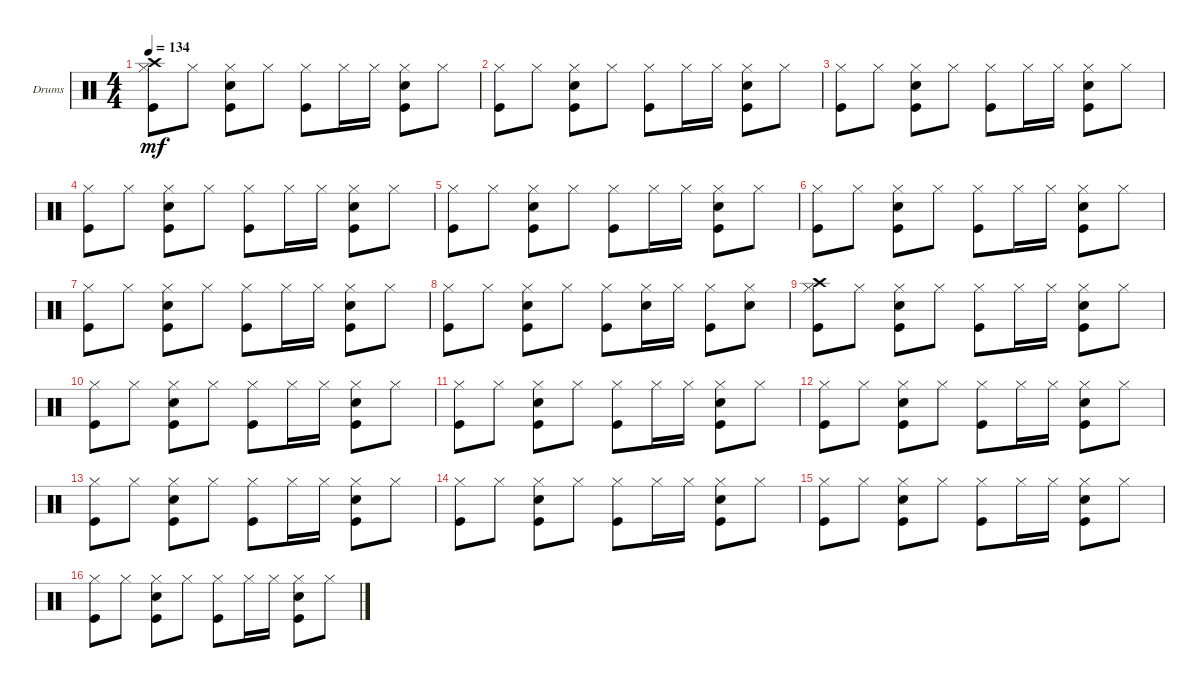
\bracketExtendMode groupsimilarinstruments
\firstSystemTrackNameOrientation horizontal
\otherSystemsTrackNameOrientation horizontal
\track ("DRUMSET" "Drums") {instrument percussion}
\staff {score}
\articulation defaults
\ts (4 4)
\tempo 134
\clef neutral
\ks c
("Kick (hit)" "Hi-Hat (closed)" "Crash high (hit)").8{dy mf} "Hi-Hat (closed)".8 ("Kick (hit)" "Snare (hit) 2" "Hi-Hat (closed)").8 "Hi-Hat (closed)".8 ("Kick (hit)" "Hi-Hat (closed)").8 "Hi-Hat (closed)".16 "Hi-Hat (closed)".16 ("Kick (hit)" "Snare (hit) 2" "Hi-Hat (closed)").8 "Hi-Hat (closed)".8 |
("Kick (hit)" "Hi-Hat (closed)").8 "Hi-Hat (closed)".8 ("Kick (hit)" "Snare (hit) 2" "Hi-Hat (closed)").8 "Hi-Hat (closed)".8 ("Kick (hit)" "Hi-Hat (closed)").8 "Hi-Hat (closed)".16 "Hi-Hat (closed)".16 ("Kick (hit)" "Snare (hit) 2" "Hi-Hat (closed)").8 "Hi-Hat (closed)".8 |
("Kick (hit)" "Hi-Hat (closed)").8 "Hi-Hat (closed)".8 ("Kick (hit)" "Snare (hit) 2" "Hi-Hat (closed)").8 "Hi-Hat (closed)".8 ("Kick (hit)" "Hi-Hat (closed)").8 "Hi-Hat (closed)".16 "Hi-Hat (closed)".16 ("Kick (hit)" "Snare (hit) 2" "Hi-Hat (closed)").8 "Hi-Hat (closed)".8 |
("Kick (hit)" "Hi-Hat (closed)").8 "Hi-Hat (closed)".8 ("Kick (hit)" "Snare (hit) 2" "Hi-Hat (closed)").8 "Hi-Hat (closed)".8 ("Kick (hit)" "Hi-Hat (closed)").8 "Hi-Hat (closed)".16 "Hi-Hat (closed)".16 ("Kick (hit)" "Snare (hit) 2" "Hi-Hat (closed)").8 "Hi-Hat (closed)".8 |
("Kick (hit)" "Hi-Hat (closed)").8 "Hi-Hat (closed)".8 ("Kick (hit)" "Snare (hit) 2" "Hi-Hat (closed)").8 "Hi-Hat (closed)".8 ("Kick (hit)" "Hi-Hat (closed)").8 "Hi-Hat (closed)".16 "Hi-Hat (closed)".16 ("Kick (hit)" "Snare (hit) 2" "Hi-Hat (closed)").8 "Hi-Hat (closed)".8 |
("Kick (hit)" "Hi-Hat (closed)").8 "Hi-Hat (closed)".8 ("Kick (hit)" "Snare (hit) 2" "Hi-Hat (closed)").8 "Hi-Hat (closed)".8 ("Kick (hit)" "Hi-Hat (closed)").8 "Hi-Hat (closed)".16 "Hi-Hat (closed)".16 ("Kick (hit)" "Snare (hit) 2" "Hi-Hat (closed)").8 "Hi-Hat (closed)".8 |
("Kick (hit)" "Hi-Hat (closed)").8 "Hi-Hat (closed)".8 ("Kick (hit)" "Snare (hit) 2" "Hi-Hat (closed)").8 "Hi-Hat (closed)".8 ("Kick (hit)" "Hi-Hat (closed)").8 "Hi-Hat (closed)".16 "Hi-Hat (closed)".16 ("Kick (hit)" "Snare (hit) 2" "Hi-Hat (closed)").8 "Hi-Hat (closed)".8 |
("Kick (hit)" "Hi-Hat (closed)").8 "Hi-Hat (closed)".8 ("Kick (hit)" "Snare (hit) 2" "Hi-Hat (closed)").8 "Hi-Hat (closed)".8 ("Kick (hit)" "Hi-Hat (closed)").8 ("Snare (hit) 2" "Hi-Hat (closed)").16 "Hi-Hat (closed)".16 ("Kick (hit)" "Hi-Hat (closed)").8 ("Snare (hit) 2" "Hi-Hat (closed)").8 |
("Kick (hit)" "Hi-Hat (closed)" "Crash high (hit)").8 "Hi-Hat (closed)".8 ("Kick (hit)" "Snare (hit) 2" "Hi-Hat (closed)").8 "Hi-Hat (closed)".8 ("Kick (hit)" "Hi-Hat (closed)").8 "Hi-Hat (closed)".16 "Hi-Hat (closed)".16 ("Kick (hit)" "Snare (hit) 2" "Hi-Hat (closed)").8 "Hi-Hat (closed)".8 |
("Kick (hit)" "Hi-Hat (closed)").8 "Hi-Hat (closed)".8 ("Kick (hit)" "Snare (hit) 2" "Hi-Hat (closed)").8 "Hi-Hat (closed)".8 ("Kick (hit)" "Hi-Hat (closed)").8 "Hi-Hat (closed)".16 "Hi-Hat (closed)".16 ("Kick (hit)" "Snare (hit) 2" "Hi-Hat (closed)").8 "Hi-Hat (closed)".8 |
("Kick (hit)" "Hi-Hat (closed)").8 "Hi-Hat (closed)".8 ("Kick (hit)" "Snare (hit) 2" "Hi-Hat (closed)").8 "Hi-Hat (closed)".8 ("Kick (hit)" "Hi-Hat (closed)").8 "Hi-Hat (closed)".16 "Hi-Hat (closed)".16 ("Kick (hit)" "Snare (hit) 2" "Hi-Hat (closed)").8 "Hi-Hat (closed)".8 |
("Kick (hit)" "Hi-Hat (closed)").8 "Hi-Hat (closed)".8 ("Kick (hit)" "Snare (hit) 2" "Hi-Hat (closed)").8 "Hi-Hat (closed)".8 ("Kick (hit)" "Hi-Hat (closed)").8 "Hi-Hat (closed)".16 "Hi-Hat (closed)".16 ("Kick (hit)" "Snare (hit) 2" "Hi-Hat (closed)").8 "Hi-Hat (closed)".8 |
("Kick (hit)" "Hi-Hat (closed)").8 "Hi-Hat (closed)".8 ("Kick (hit)" "Snare (hit) 2" "Hi-Hat (closed)").8 "Hi-Hat (closed)".8 ("Kick (hit)" "Hi-Hat (closed)").8 "Hi-Hat (closed)".16 "Hi-Hat (closed)".16 ("Kick (hit)" "Snare (hit) 2" "Hi-Hat (closed)").8 "Hi-Hat (closed)".8 |
("Kick (hit)" "Hi-Hat (closed)").8 "Hi-Hat (closed)".8 ("Kick (hit)" "Snare (hit) 2" "Hi-Hat (closed)").8 "Hi-Hat (closed)".8 ("Kick (hit)" "Hi-Hat (closed)").8 "Hi-Hat (closed)".16 "Hi-Hat (closed)".16 ("Kick (hit)" "Snare (hit) 2" "Hi-Hat (closed)").8 "Hi-Hat (closed)".8 |
("Kick (hit)" "Hi-Hat (closed)").8 "Hi-Hat (closed)".8 ("Kick (hit)" "Snare (hit) 2" "Hi-Hat (closed)").8 "Hi-Hat (closed)".8 ("Kick (hit)" "Hi-Hat (closed)").8 "Hi-Hat (closed)".16 "Hi-Hat (closed)".16 ("Kick (hit)" "Snare (hit) 2" "Hi-Hat (closed)").8 "Hi-Hat (closed)".8 |
("Kick (hit)" "Hi-Hat (closed)").8 "Hi-Hat (closed)".8 ("Kick (hit)" "Snare (hit) 2" "Hi-Hat (closed)").8 "Hi-Hat (closed)".8 ("Kick (hit)" "Hi-Hat (closed)").8 "Hi-Hat (closed)".16 "Hi-Hat (closed)".16 ("Kick (hit)" "Snare (hit) 2" "Hi-Hat (closed)").8 "Hi-Hat (closed)".8
